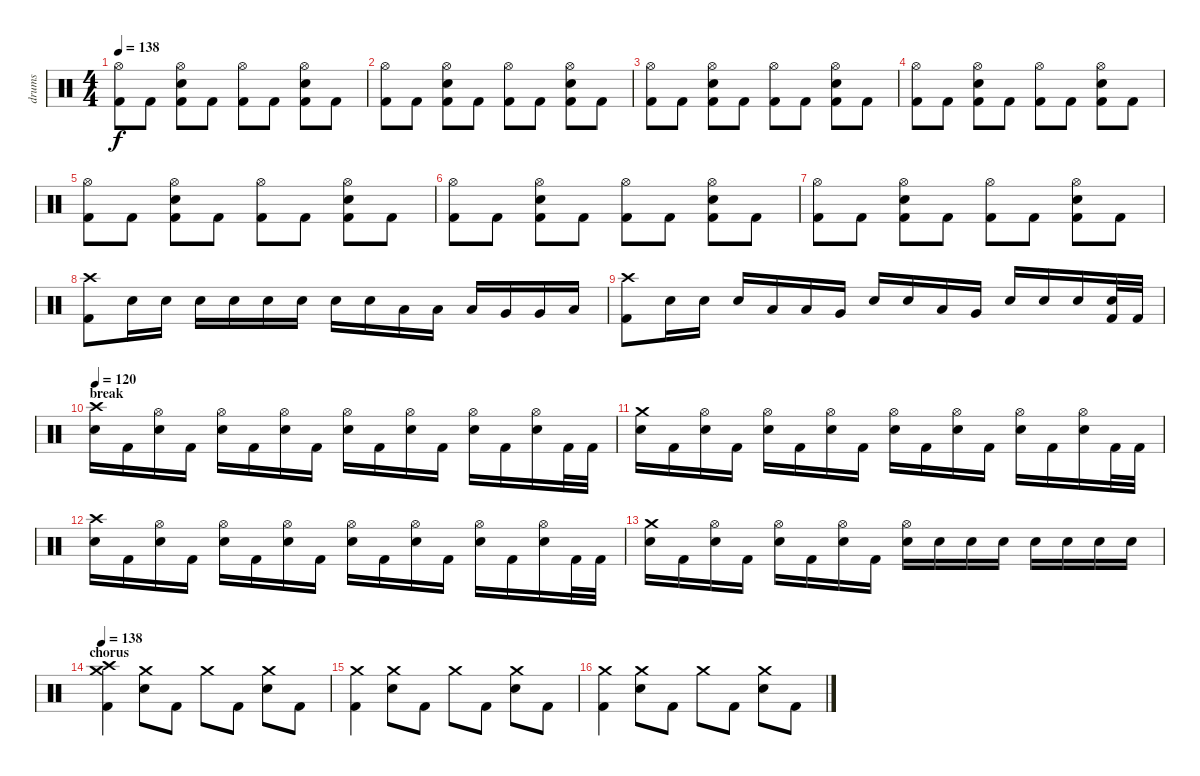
\track ("drums" "drums") {instrument percussion}
\staff {score}
\articulation defaults
\ts (4 4)
\tempo 138
\clef neutral
\ks c
("Hi-Hat (open)" "Kick (hit) 2").8{dy f} "Kick (hit) 2".8 ("Hi-Hat (open)" "Electric Snare (hit)" "Kick (hit) 2").8 "Kick (hit) 2".8 ("Hi-Hat (open)" "Kick (hit) 2").8 "Kick (hit) 2".8 ("Hi-Hat (open)" "Electric Snare (hit)" "Kick (hit) 2").8 "Kick (hit) 2".8 |
("Hi-Hat (open)" "Kick (hit) 2").8 "Kick (hit) 2".8 ("Hi-Hat (open)" "Electric Snare (hit)" "Kick (hit) 2").8 "Kick (hit) 2".8 ("Hi-Hat (open)" "Kick (hit) 2").8 "Kick (hit) 2".8 ("Hi-Hat (open)" "Electric Snare (hit)" "Kick (hit) 2").8 "Kick (hit) 2".8 |
("Hi-Hat (open)" "Kick (hit) 2").8 "Kick (hit) 2".8 ("Hi-Hat (open)" "Electric Snare (hit)" "Kick (hit) 2").8 "Kick (hit) 2".8 ("Hi-Hat (open)" "Kick (hit) 2").8 "Kick (hit) 2".8 ("Hi-Hat (open)" "Electric Snare (hit)" "Kick (hit) 2").8 "Kick (hit) 2".8 |
("Hi-Hat (open)" "Kick (hit) 2").8 "Kick (hit) 2".8 ("Hi-Hat (open)" "Electric Snare (hit)" "Kick (hit) 2").8 "Kick (hit) 2".8 ("Hi-Hat (open)" "Kick (hit) 2").8 "Kick (hit) 2".8 ("Hi-Hat (open)" "Electric Snare (hit)" "Kick (hit) 2").8 "Kick (hit) 2".8 |
("Hi-Hat (open)" "Kick (hit) 2").8 "Kick (hit) 2".8 ("Hi-Hat (open)" "Electric Snare (hit)" "Kick (hit) 2").8 "Kick (hit) 2".8 ("Hi-Hat (open)" "Kick (hit) 2").8 "Kick (hit) 2".8 ("Hi-Hat (open)" "Electric Snare (hit)" "Kick (hit) 2").8 "Kick (hit) 2".8 |
("Hi-Hat (open)" "Kick (hit) 2").8 "Kick (hit) 2".8 ("Hi-Hat (open)" "Electric Snare (hit)" "Kick (hit) 2").8 "Kick (hit) 2".8 ("Hi-Hat (open)" "Kick (hit) 2").8 "Kick (hit) 2".8 ("Hi-Hat (open)" "Electric Snare (hit)" "Kick (hit) 2").8 "Kick (hit) 2".8 |
("Hi-Hat (open)" "Kick (hit) 2").8 "Kick (hit) 2".8 ("Hi-Hat (open)" "Electric Snare (hit)" "Kick (hit) 2").8 "Kick (hit) 2".8 ("Hi-Hat (open)" "Kick (hit) 2").8 "Kick (hit) 2".8 ("Hi-Hat (open)" "Electric Snare (hit)" "Kick (hit) 2").8 "Kick (hit) 2".8 |
("Crash high (hit)" "Kick (hit) 2").8 "Electric Snare (hit)".16 "Electric Snare (hit)".16 "Electric Snare (hit)".16 "Electric Snare (hit)".16 "Electric Snare (hit)".16 "Electric Snare (hit)".16 "Electric Snare (hit)".16 "Electric Snare (hit)".16 "Low Tom (hit)".16 "Low Tom (hit)".16 "Low Tom (hit)".16 "Very Low Tom (hit)".16 "Very Low Tom (hit)".16 "Low Floor Tom (hit)".16 |
("Crash high (hit)" "Kick (hit) 2").8 "Electric Snare (hit)".16 "Electric Snare (hit)".16 "Electric Snare (hit)".16 "Low Tom (hit)".16 "Low Tom (hit)".16 "Very Low Tom (hit)".16 "Electric Snare (hit)".16 "Electric Snare (hit)".16 "Low Tom (hit)".16 "Very Low Tom (hit)".16 "Electric Snare (hit)".16 "Electric Snare (hit)".16 "Electric Snare (hit)".16 ("Electric Snare (hit)" "Kick (hit) 2").32 "Kick (hit) 2".32 |
\section ("" "break")
\tempo 120
("Crash high (hit)" "Electric Snare (hit)").16 "Kick (hit) 2".16 ("Hi-Hat (open)" "Electric Snare (hit)").16 "Kick (hit) 2".16 ("Hi-Hat (open)" "Electric Snare (hit)").16 "Kick (hit) 2".16 ("Hi-Hat (open)" "Electric Snare (hit)").16 "Kick (hit) 2".16 ("Hi-Hat (open)" "Electric Snare (hit)").16 "Kick (hit) 2".16 ("Hi-Hat (open)" "Electric Snare (hit)").16 "Kick (hit) 2".16 ("Hi-Hat (open)" "Electric Snare (hit)").16 "Kick (hit) 2".16 ("Hi-Hat (open)" "Electric Snare (hit)").16 "Kick (hit) 2".32 "Kick (hit) 2".32 |
("Crash medium (hit)" "Electric Snare (hit)").16 "Kick (hit) 2".16 ("Hi-Hat (open)" "Electric Snare (hit)").16 "Kick (hit) 2".16 ("Hi-Hat (open)" "Electric Snare (hit)").16 "Kick (hit) 2".16 ("Hi-Hat (open)" "Electric Snare (hit)").16 "Kick (hit) 2".16 ("Hi-Hat (open)" "Electric Snare (hit)").16 "Kick (hit) 2".16 ("Hi-Hat (open)" "Electric Snare (hit)").16 "Kick (hit) 2".16 ("Hi-Hat (open)" "Electric Snare (hit)").16 "Kick (hit) 2".16 ("Hi-Hat (open)" "Electric Snare (hit)").16 "Kick (hit) 2".32 "Kick (hit) 2".32 |
("Crash high (hit)" "Electric Snare (hit)").16 "Kick (hit) 2".16 ("Hi-Hat (open)" "Electric Snare (hit)").16 "Kick (hit) 2".16 ("Hi-Hat (open)" "Electric Snare (hit)").16 "Kick (hit) 2".16 ("Hi-Hat (open)" "Electric Snare (hit)").16 "Kick (hit) 2".16 ("Hi-Hat (open)" "Electric Snare (hit)").16 "Kick (hit) 2".16 ("Hi-Hat (open)" "Electric Snare (hit)").16 "Kick (hit) 2".16 ("Hi-Hat (open)" "Electric Snare (hit)").16 "Kick (hit) 2".16 ("Hi-Hat (open)" "Electric Snare (hit)").16 "Kick (hit) 2".32 "Kick (hit) 2".32 |
("Crash medium (hit)" "Electric Snare (hit)").16 "Kick (hit) 2".16 ("Hi-Hat (open)" "Electric Snare (hit)").16 "Kick (hit) 2".16 ("Hi-Hat (open)" "Electric Snare (hit)").16 "Kick (hit) 2".16 ("Hi-Hat (open)" "Electric Snare (hit)").16 "Kick (hit) 2".16 ("Hi-Hat (open)" "Electric Snare (hit)").16 "Electric Snare (hit)".16 "Electric Snare (hit)".16 "Electric Snare (hit)".16 "Electric Snare (hit)".16 "Electric Snare (hit)".16 "Electric Snare (hit)".16 "Electric Snare (hit)".16 |
\section ("" "chorus")
\tempo 138
("Crash high (hit)" "Crash medium (hit)" "Kick (hit) 2").4 ("Crash medium (hit)" "Electric Snare (hit)").8 "Kick (hit) 2".8 "Crash medium (hit)".8 "Kick (hit) 2".8 ("Crash medium (hit)" "Electric Snare (hit)").8 "Kick (hit) 2".8 |
("Crash medium (hit)" "Kick (hit) 2").4 ("Crash medium (hit)" "Electric Snare (hit)").8 "Kick (hit) 2".8 "Crash medium (hit)".8 "Kick (hit) 2".8 ("Crash medium (hit)" "Electric Snare (hit)").8 "Kick (hit) 2".8 |
("Crash medium (hit)" "Kick (hit) 2").4 ("Crash medium (hit)" "Electric Snare (hit)").8 "Kick (hit) 2".8 "Crash medium (hit)".8 "Kick (hit) 2".8 ("Crash medium (hit)" "Electric Snare (hit)").8 "Kick (hit) 2".8
